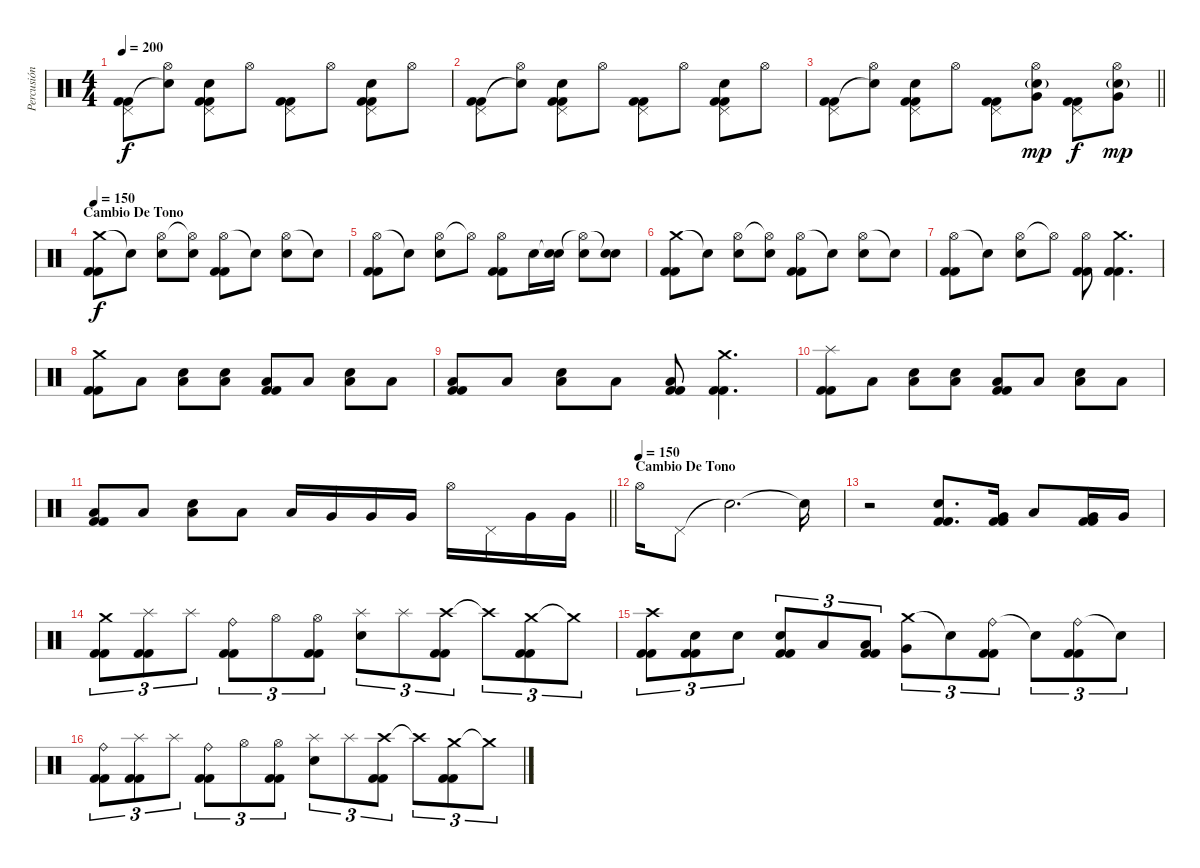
\track ("Percusión" "Percusión") {instrument percussion}
\staff {score}
\articulation defaults
\ts (4 4)
\tempo 200
\clef neutral
\ks c
("Pedal Hi-Hat (hit)" "Kick (hit) 2" "Kick (hit) 2").8{dy f} ("Hi-Hat (open)" "Snare (hit)"{t}).8 ("Pedal Hi-Hat (hit)" "Electric Snare (hit)" "Kick (hit) 2" "Kick (hit) 2").8 "Hi-Hat (open)".8 ("Pedal Hi-Hat (hit)" "Kick (hit) 2" "Kick (hit) 2").8 "Hi-Hat (open)".8 ("Pedal Hi-Hat (hit)" "Electric Snare (hit)" "Kick (hit) 2" "Kick (hit) 2").8 "Hi-Hat (open)".8 |
("Pedal Hi-Hat (hit)" "Kick (hit) 2" "Kick (hit) 2").8 ("Hi-Hat (open)" "Snare (hit)"{t}).8 ("Pedal Hi-Hat (hit)" "Electric Snare (hit)" "Kick (hit) 2" "Kick (hit) 2").8 "Hi-Hat (open)".8 ("Pedal Hi-Hat (hit)" "Kick (hit) 2" "Kick (hit) 2").8 "Hi-Hat (open)".8 ("Pedal Hi-Hat (hit)" "Electric Snare (hit)" "Kick (hit) 2" "Kick (hit) 2").8 "Hi-Hat (open)".8 |
\barLineRight lightlight
("Pedal Hi-Hat (hit)" "Kick (hit) 2" "Kick (hit) 2").8 ("Hi-Hat (open)" "Snare (hit)"{t}).8 ("Pedal Hi-Hat (hit)" "Electric Snare (hit)" "Kick (hit) 2" "Kick (hit) 2").8 "Hi-Hat (open)".8 ("Pedal Hi-Hat (hit)" "Kick (hit) 2" "Kick (hit) 2").8 ("Hi-Hat (open)" "Very Low Tom (hit)" "Electric Snare (hit)"{g}).8{dy mp} ("Pedal Hi-Hat (hit)" "Kick (hit) 2" "Kick (hit) 2").8{dy f} ("Hi-Hat (open)" "Very Low Tom (hit)" "Electric Snare (hit)"{g}).8{dy mp} |
\section ("" "Cambio De Tono")
\tempo 150
("Crash medium (hit)" "Kick (hit) 2" "Kick (hit) 2").8{dy f} "Snare (hit)"{t}.8 ("Hi-Hat (open)" "Electric Snare (hit)").8 ("Hi-Hat (open)"{t} "Electric Snare (hit)").8 ("Hi-Hat (open)" "Kick (hit) 2" "Kick (hit) 2").8 "Snare (hit)"{t}.8 ("Hi-Hat (open)" "Electric Snare (hit)").8 "Snare (hit)"{t}.8 |
("Hi-Hat (open)" "Kick (hit) 2" "Kick (hit) 2").8 "Snare (hit)"{t}.8 ("Hi-Hat (open)" "Electric Snare (hit)").8 "Hi-Hat (open)"{t}.8 ("Hi-Hat (open)" "Kick (hit) 2" "Kick (hit) 2").8 "Electric Snare (hit)".16 ("Snare (hit)"{t} "Electric Snare (hit)").16 ("Hi-Hat (open)"{t} "Electric Snare (hit)").8 ("Snare (hit)"{t} "Electric Snare (hit)").8 |
("Crash medium (hit)" "Kick (hit) 2" "Kick (hit) 2").8 "Snare (hit)"{t}.8 ("Hi-Hat (open)" "Electric Snare (hit)").8 ("Hi-Hat (open)"{t} "Electric Snare (hit)").8 ("Hi-Hat (open)" "Kick (hit) 2" "Kick (hit) 2").8 "Snare (hit)"{t}.8 ("Hi-Hat (open)" "Electric Snare (hit)").8 "Snare (hit)"{t}.8 |
("Hi-Hat (open)" "Kick (hit) 2" "Kick (hit) 2").8 "Snare (hit)"{t}.8 ("Hi-Hat (open)" "Electric Snare (hit)").8 "Hi-Hat (open)"{t}.8 ("Hi-Hat (open)" "Kick (hit) 2" "Kick (hit) 2").8 ("Crash medium (hit)" "Kick (hit) 2" "Kick (hit) 2").4{d} |
("Crash medium (hit)" "Kick (hit) 2" "Kick (hit) 2").8 "Low Floor Tom (hit)".8 ("Low Floor Tom (hit)" "Electric Snare (hit)").8 ("Low Floor Tom (hit)" "Electric Snare (hit)").8 ("Low Floor Tom (hit)" "Kick (hit) 2" "Kick (hit) 2").8 "Low Floor Tom (hit)".8 ("Low Floor Tom (hit)" "Electric Snare (hit)").8 "Low Floor Tom (hit)".8 |
("Low Floor Tom (hit)" "Kick (hit) 2" "Kick (hit) 2").8 "Low Floor Tom (hit)".8 ("Low Floor Tom (hit)" "Electric Snare (hit)").8 "Low Floor Tom (hit)".8 ("Low Floor Tom (hit)" "Kick (hit) 2" "Kick (hit) 2").8 ("Crash medium (hit)" "Kick (hit) 2" "Kick (hit) 2").4{d} |
("Splash (hit)" "Kick (hit) 2" "Kick (hit) 2").8 "Low Floor Tom (hit)".8 ("Low Floor Tom (hit)" "Electric Snare (hit)").8 ("Low Floor Tom (hit)" "Electric Snare (hit)").8 ("Low Floor Tom (hit)" "Kick (hit) 2" "Kick (hit) 2").8 "Low Floor Tom (hit)".8 ("Low Floor Tom (hit)" "Electric Snare (hit)").8 "Low Floor Tom (hit)".8 |
\barLineRight lightlight
("Low Floor Tom (hit)" "Kick (hit) 2" "Kick (hit) 2").8 "Low Floor Tom (hit)".8 ("Low Floor Tom (hit)" "Electric Snare (hit)").8 "Low Floor Tom (hit)".8 "Low Floor Tom (hit)".16 "Very Low Tom (hit)".16 "Very Low Tom (hit)".16 "Very Low Tom (hit)".16 "Hi-Hat (open)".16 "Pedal Hi-Hat (hit)".16 "Very Low Tom (hit)".16 "Very Low Tom (hit)".16 |
\section ("" "Cambio De Tono")
\tempo (150)
"Hi-Hat (open)".16 "Pedal Hi-Hat (hit)".8 "Snare (hit)"{t}.2{d} "Snare (hit)"{t}.16 |
r.2 ("Electric Snare (hit)" "Kick (hit) 2" "Kick (hit) 2").8{d} ("Very Low Tom (hit)" "Kick (hit) 2" "Kick (hit) 2").16 "Low Tom (hit)".8 ("Very Low Tom (hit)" "Kick (hit) 2" "Kick (hit) 2").16 "Very Low Tom (hit)".16 |
("Crash medium (hit)" "Kick (hit) 2" "Kick (hit) 2").8{tu (3 2)} ("Splash (hit)" "Kick (hit) 2" "Kick (hit) 2").8{tu (3 2)} "Splash (hit)".8{tu (3 2)} ("Ride (bell)" "Kick (hit) 2" "Kick (hit) 2").8{tu (3 2)} "Hi-Hat (open)".8{tu (3 2)} ("Hi-Hat (open)" "Kick (hit) 2" "Kick (hit) 2").8{tu (3 2)} ("Splash (hit)" "Electric Snare (hit)").8{tu (3 2)} "Splash (hit)".8{tu (3 2)} ("Crash high (hit)" "Kick (hit) 2" "Kick (hit) 2").8{tu (3 2)} "Crash high (hit)"{t}.8{tu (3 2)} ("Crash medium (hit)" "Kick (hit) 2" "Kick (hit) 2").8{tu (3 2)} "Crash medium (hit)"{t}.8{tu (3 2)} |
("Crash high (hit)" "Kick (hit) 2" "Kick (hit) 2").8{tu (3 2)} ("Electric Snare (hit)" "Kick (hit) 2" "Kick (hit) 2").8{tu (3 2)} "Electric Snare (hit)".8{tu (3 2)} ("Electric Snare (hit)" "Kick (hit) 2" "Kick (hit) 2").8{tu (3 2)} "Low Tom (hit)".8{tu (3 2)} ("Low Tom (hit)" "Kick (hit) 2" "Kick (hit) 2").8{tu (3 2)} ("Crash medium (hit)" "Very Low Tom (hit)").8{tu (3 2)} "Snare (hit)"{t}.8{tu (3 2)} ("Ride (bell)" "Kick (hit) 2" "Kick (hit) 2").8{tu (3 2)} "Snare (hit)"{t}.8{tu (3 2)} ("Ride (bell)" "Kick (hit) 2" "Kick (hit) 2").8{tu (3 2)} "Snare (hit)"{t}.8{tu (3 2)} |
("Ride (bell)" "Kick (hit) 2" "Kick (hit) 2").8{tu (3 2)} ("Splash (hit)" "Kick (hit) 2" "Kick (hit) 2").8{tu (3 2)} "Splash (hit)".8{tu (3 2)} ("Ride (bell)" "Kick (hit) 2" "Kick (hit) 2").8{tu (3 2)} "Hi-Hat (open)".8{tu (3 2)} ("Hi-Hat (open)" "Kick (hit) 2" "Kick (hit) 2").8{tu (3 2)} ("Splash (hit)" "Electric Snare (hit)").8{tu (3 2)} "Splash (hit)".8{tu (3 2)} ("Crash high (hit)" "Kick (hit) 2" "Kick (hit) 2").8{tu (3 2)} "Crash high (hit)"{t}.8{tu (3 2)} ("Crash medium (hit)" "Kick (hit) 2" "Kick (hit) 2").8{tu (3 2)} "Crash medium (hit)"{t}.8{tu (3 2)}
